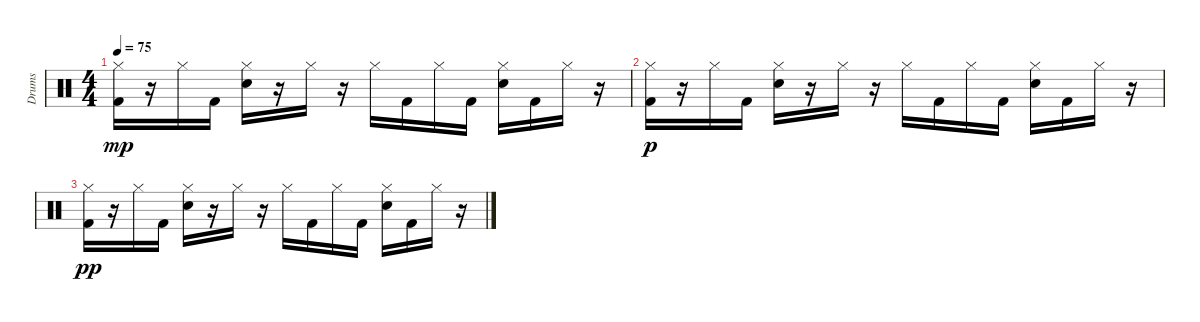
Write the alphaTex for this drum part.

\track ("Drums" "Drums") {instrument percussion}
\staff {score}
\articulation defaults
\ts (4 4)
\tempo 75
\clef neutral
\ks c
("Hi-Hat (closed)" "Kick (hit) 2").16{dy mp} r.16 "Hi-Hat (closed)".16 "Kick (hit) 2".16 ("Hi-Hat (closed)" "Electric Snare (hit)").16 r.16 "Hi-Hat (closed)".16 r.16 "Hi-Hat (closed)".16 "Kick (hit) 2".16 "Hi-Hat (closed)".16 "Kick (hit) 2".16 ("Hi-Hat (closed)" "Electric Snare (hit)").16 "Kick (hit) 2".16 "Hi-Hat (closed)".16 r.16 |
("Hi-Hat (closed)" "Kick (hit) 2").16{dy p} r.16 "Hi-Hat (closed)".16 "Kick (hit) 2".16 ("Hi-Hat (closed)" "Electric Snare (hit)").16 r.16 "Hi-Hat (closed)".16 r.16 "Hi-Hat (closed)".16 "Kick (hit) 2".16 "Hi-Hat (closed)".16 "Kick (hit) 2".16 ("Hi-Hat (closed)" "Electric Snare (hit)").16 "Kick (hit) 2".16 "Hi-Hat (closed)".16 r.16 |
("Hi-Hat (closed)" "Kick (hit) 2").16{dy pp} r.16 "Hi-Hat (closed)".16 "Kick (hit) 2".16 ("Hi-Hat (closed)" "Electric Snare (hit)").16 r.16 "Hi-Hat (closed)".16 r.16 "Hi-Hat (closed)".16 "Kick (hit) 2".16 "Hi-Hat (closed)".16 "Kick (hit) 2".16 ("Hi-Hat (closed)" "Electric Snare (hit)").16 "Kick (hit) 2".16 "Hi-Hat (closed)".16 r.16
